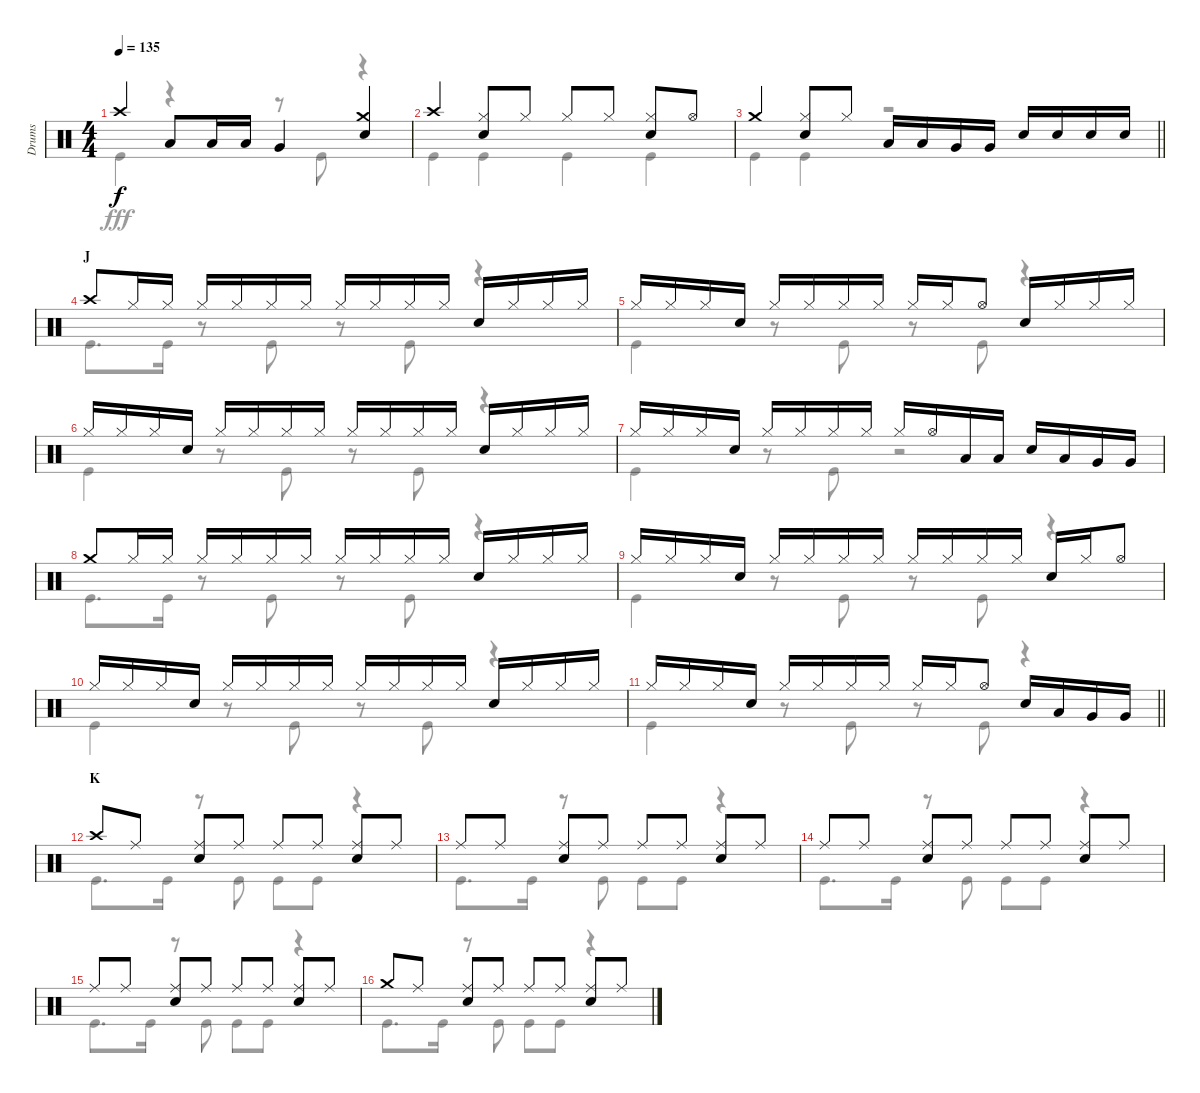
\track ("Drums" "Drums") {instrument percussion}
\staff {score}
\articulation defaults
\voice
\ts (4 4)
\tempo 135
\clef neutral
\ks c "Crash high (hit)".4{dy f} "Low Tom (hit)".8 "Low Tom (hit)".16 "Low Tom (hit)".16 "Very Low Tom (hit)".4
("Crash medium (hit)" "Snare (hit) 2").4 |
"Crash high (hit)".4 ("Hi-Hat (closed)" "Snare (hit) 2").8 "Hi-Hat (closed)".8 "Hi-Hat (closed)".8 "Hi-Hat (closed)".8 ("Hi-Hat (closed)" "Snare (hit) 2").8 "Hi-Hat (open)".8 |
\barLineRight lightlight "Crash medium (hit)".4
("Hi-Hat (closed)" "Snare (hit) 2").8 "Hi-Hat (closed)".8 "Low Tom (hit)".16 "Low Tom (hit)".16 "Very Low Tom (hit)".16 "Very Low Tom (hit)".16 "Snare (hit) 2".16 "Snare (hit) 2".16 "Snare (hit) 2".16 "Snare (hit) 2".16 |
\section ("" "J")
"Crash high (hit)".8 "Hi-Hat (closed)".16 "Hi-Hat (closed)".16 "Hi-Hat (closed)".16 "Hi-Hat (closed)".16 "Hi-Hat (closed)".16 "Hi-Hat (closed)".16 "Hi-Hat (closed)".16 "Hi-Hat (closed)".16 "Hi-Hat (closed)".16 "Hi-Hat (closed)".16 "Snare (hit) 2".16 "Hi-Hat (closed)".16 "Hi-Hat (closed)".16 "Hi-Hat (closed)".16 |
"Hi-Hat (closed)".16 "Hi-Hat (closed)".16 "Hi-Hat (closed)".16 "Snare (hit) 2".16 "Hi-Hat (closed)".16 "Hi-Hat (closed)".16 "Hi-Hat (closed)".16 "Hi-Hat (closed)".16 "Hi-Hat (closed)".16 "Hi-Hat (closed)".16 "Hi-Hat (open)".8 "Snare (hit) 2".16 "Hi-Hat (closed)".16 "Hi-Hat (closed)".16 "Hi-Hat (closed)".16 |
"Hi-Hat (closed)".16 "Hi-Hat (closed)".16 "Hi-Hat (closed)".16 "Snare (hit) 2".16 "Hi-Hat (closed)".16 "Hi-Hat (closed)".16 "Hi-Hat (closed)".16 "Hi-Hat (closed)".16 "Hi-Hat (closed)".16 "Hi-Hat (closed)".16 "Hi-Hat (closed)".16 "Hi-Hat (closed)".16 "Snare (hit) 2".16 "Hi-Hat (closed)".16 "Hi-Hat (closed)".16 "Hi-Hat (closed)".16 |
"Hi-Hat (closed)".16 "Hi-Hat (closed)".16 "Hi-Hat (closed)".16 "Snare (hit) 2".16 "Hi-Hat (closed)".16 "Hi-Hat (closed)".16 "Hi-Hat (closed)".16 "Hi-Hat (closed)".16 "Hi-Hat (closed)".16 "Hi-Hat (open)".16 "Low Tom (hit)".16 "Low Tom (hit)".16 "Snare (hit) 2".16 "Low Tom (hit)".16 "Very Low Tom (hit)".16 "Very Low Tom (hit)".16 |
"Crash medium (hit)".8 "Hi-Hat (closed)".16 "Hi-Hat (closed)".16 "Hi-Hat (closed)".16 "Hi-Hat (closed)".16 "Hi-Hat (closed)".16 "Hi-Hat (closed)".16 "Hi-Hat (closed)".16 "Hi-Hat (closed)".16 "Hi-Hat (closed)".16 "Hi-Hat (closed)".16 "Snare (hit) 2".16 "Hi-Hat (closed)".16 "Hi-Hat (closed)".16 "Hi-Hat (closed)".16 |
"Hi-Hat (closed)".16 "Hi-Hat (closed)".16 "Hi-Hat (closed)".16 "Snare (hit) 2".16 "Hi-Hat (closed)".16 "Hi-Hat (closed)".16 "Hi-Hat (closed)".16 "Hi-Hat (closed)".16 "Hi-Hat (closed)".16 "Hi-Hat (closed)".16 "Hi-Hat (closed)".16 "Hi-Hat (closed)".16 "Snare (hit) 2".16 "Hi-Hat (closed)".16 "Hi-Hat (open)".8 |
"Hi-Hat (closed)".16 "Hi-Hat (closed)".16 "Hi-Hat (closed)".16 "Snare (hit) 2".16 "Hi-Hat (closed)".16 "Hi-Hat (closed)".16 "Hi-Hat (closed)".16 "Hi-Hat (closed)".16 "Hi-Hat (closed)".16 "Hi-Hat (closed)".16 "Hi-Hat (closed)".16 "Hi-Hat (closed)".16 "Snare (hit) 2".16 "Hi-Hat (closed)".16 "Hi-Hat (closed)".16 "Hi-Hat (closed)".16 |
\barLineRight lightlight "Hi-Hat (closed)".16 "Hi-Hat (closed)".16 "Hi-Hat (closed)".16 "Snare (hit) 2".16 "Hi-Hat (closed)".16 "Hi-Hat (closed)".16 "Hi-Hat (closed)".16 "Hi-Hat (closed)".16 "Hi-Hat (closed)".16 "Hi-Hat (closed)".16 "Hi-Hat (open)".8 "Snare (hit) 2".16 "Low Tom (hit)".16 "Very Low Tom (hit)".16 "Very Low Tom (hit)".16
|
\section ("" "K")
"Crash high (hit)".8 "Ride (middle)".8 ("Ride (middle)" "Snare (hit) 2").8 "Ride (middle)".8 "Ride (middle)".8 "Ride (middle)".8 ("Ride (middle)" "Snare (hit) 2").8 "Ride (middle)".8 |
"Ride (middle)".8 "Ride (middle)".8 ("Ride (middle)" "Snare (hit) 2").8 "Ride (middle)".8 "Ride (middle)".8 "Ride (middle)".8 ("Ride (middle)" "Snare (hit) 2").8 "Ride (middle)".8 |
"Ride (middle)".8 "Ride (middle)".8 ("Ride (middle)" "Snare (hit) 2").8 "Ride (middle)".8 "Ride (middle)".8 "Ride (middle)".8 ("Ride (middle)" "Snare (hit) 2").8 "Ride (middle)".8 |
"Ride (middle)".8 "Ride (middle)".8 ("Ride (middle)" "Snare (hit) 2").8 "Ride (middle)".8 "Ride (middle)".8 "Ride (middle)".8 ("Ride (middle)" "Snare (hit) 2").8 "Ride (middle)".8 |
"Crash medium (hit)".8 "Ride (middle)".8 ("Ride (middle)" "Snare (hit) 2").8 "Ride (middle)".8 "Ride (middle)".8 "Ride (middle)".8 ("Ride (middle)" "Snare (hit) 2").8 "Ride (middle)".8
\voice
\clef neutral
\ottava regular
\simile none
\ks c "Kick (hit)".4{dy fff}
r.4 r.8 "Kick (hit)".8 r.4 |
"Kick (hit)".4 "Kick (hit)".4 "Kick (hit)".4 "Kick (hit)".4 |
\barLineRight lightlight "Kick (hit)".4 "Kick (hit)".4
r.2 |
"Kick (hit)".8{d} "Kick (hit)".16 r.8 "Kick (hit)".8 r.8 "Kick (hit)".8 r.4 |
"Kick (hit)".4 r.8 "Kick (hit)".8 r.8 "Kick (hit)".8 r.4 |
"Kick (hit)".4 r.8 "Kick (hit)".8 r.8 "Kick (hit)".8 r.4 |
"Kick (hit)".4 r.8 "Kick (hit)".8 r.2 |
"Kick (hit)".8{d} "Kick (hit)".16 r.8 "Kick (hit)".8 r.8 "Kick (hit)".8 r.4 |
"Kick (hit)".4 r.8 "Kick (hit)".8 r.8 "Kick (hit)".8 r.4 |
"Kick (hit)".4 r.8 "Kick (hit)".8 r.8 "Kick (hit)".8 r.4 |
\barLineRight lightlight "Kick (hit)".4
r.8 "Kick (hit)".8 r.8 "Kick (hit)".8 r.4 |
"Kick (hit)".8{d} "Kick (hit)".16 r.8 "Kick (hit)".8 "Kick (hit)".8 "Kick (hit)".8 r.4 |
"Kick (hit)".8{d} "Kick (hit)".16 r.8 "Kick (hit)".8 "Kick (hit)".8 "Kick (hit)".8 r.4 |
"Kick (hit)".8{d} "Kick (hit)".16 r.8 "Kick (hit)".8 "Kick (hit)".8 "Kick (hit)".8 r.4 |
"Kick (hit)".8{d} "Kick (hit)".16 r.8 "Kick (hit)".8 "Kick (hit)".8 "Kick (hit)".8 r.4 |
"Kick (hit)".8{d} "Kick (hit)".16 r.8 "Kick (hit)".8 "Kick (hit)".8 "Kick (hit)".8 r.4
